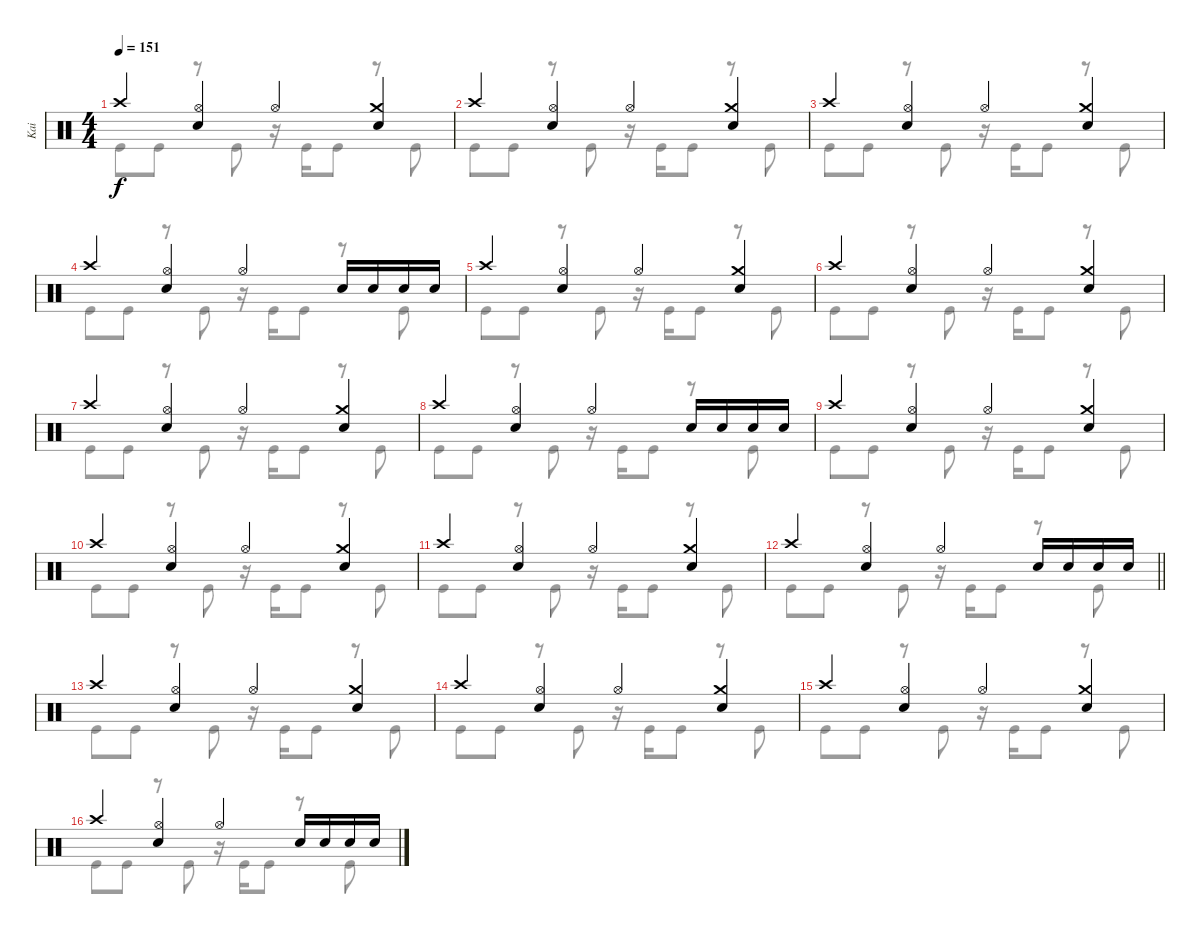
\track ("Kai" "Kai") {instrument percussion}
\staff {score}
\articulation defaults
\voice
\ts (4 4)
\tempo 151
\clef neutral
\ks c "Crash high (hit)".4{dy f}
("Hi-Hat (open)" "Electric Snare (hit)").4 "Hi-Hat (open)".4 ("Crash medium (hit)" "Electric Snare (hit)").4 |
"Crash high (hit)".4 ("Hi-Hat (open)" "Electric Snare (hit)").4 "Hi-Hat (open)".4 ("Crash medium (hit)" "Electric Snare (hit)").4 |
"Crash high (hit)".4 ("Hi-Hat (open)" "Electric Snare (hit)").4 "Hi-Hat (open)".4 ("Crash medium (hit)" "Electric Snare (hit)").4 |
"Crash high (hit)".4 ("Hi-Hat (open)" "Electric Snare (hit)").4 "Hi-Hat (open)".4 "Electric Snare (hit)".16 "Electric Snare (hit)".16 "Electric Snare (hit)".16 "Electric Snare (hit)".16 |
"Crash high (hit)".4 ("Hi-Hat (open)" "Electric Snare (hit)").4 "Hi-Hat (open)".4 ("Crash medium (hit)" "Electric Snare (hit)").4 |
"Crash high (hit)".4 ("Hi-Hat (open)" "Electric Snare (hit)").4 "Hi-Hat (open)".4 ("Crash medium (hit)" "Electric Snare (hit)").4 |
"Crash high (hit)".4 ("Hi-Hat (open)" "Electric Snare (hit)").4 "Hi-Hat (open)".4 ("Crash medium (hit)" "Electric Snare (hit)").4 |
"Crash high (hit)".4 ("Hi-Hat (open)" "Electric Snare (hit)").4 "Hi-Hat (open)".4 "Electric Snare (hit)".16 "Electric Snare (hit)".16 "Electric Snare (hit)".16 "Electric Snare (hit)".16 |
"Crash high (hit)".4 ("Hi-Hat (open)" "Electric Snare (hit)").4 "Hi-Hat (open)".4 ("Crash medium (hit)" "Electric Snare (hit)").4 |
"Crash high (hit)".4 ("Hi-Hat (open)" "Electric Snare (hit)").4 "Hi-Hat (open)".4 ("Crash medium (hit)" "Electric Snare (hit)").4 |
"Crash high (hit)".4 ("Hi-Hat (open)" "Electric Snare (hit)").4 "Hi-Hat (open)".4 ("Crash medium (hit)" "Electric Snare (hit)").4 |
\barLineRight lightlight "Crash high (hit)".4
("Hi-Hat (open)" "Electric Snare (hit)").4 "Hi-Hat (open)".4 "Electric Snare (hit)".16 "Electric Snare (hit)".16 "Electric Snare (hit)".16 "Electric Snare (hit)".16 |
\section ("" "")
"Crash high (hit)".4 ("Hi-Hat (open)" "Electric Snare (hit)").4 "Hi-Hat (open)".4 ("Crash medium (hit)" "Electric Snare (hit)").4 |
"Crash high (hit)".4 ("Hi-Hat (open)" "Electric Snare (hit)").4 "Hi-Hat (open)".4 ("Crash medium (hit)" "Electric Snare (hit)").4 |
"Crash high (hit)".4 ("Hi-Hat (open)" "Electric Snare (hit)").4 "Hi-Hat (open)".4 ("Crash medium (hit)" "Electric Snare (hit)").4 |
"Crash high (hit)".4 ("Hi-Hat (open)" "Electric Snare (hit)").4 "Hi-Hat (open)".4 "Electric Snare (hit)".16 "Electric Snare (hit)".16 "Electric Snare (hit)".16 "Electric Snare (hit)".16
\voice
\clef neutral
\ottava regular
\simile none
\ks c "Kick (hit)".8{dy f} "Kick (hit)".8
r.8 "Kick (hit)".8 r.16 "Kick (hit)".16 "Kick (hit)".8 r.8 "Kick (hit)".8 |
"Kick (hit)".8 "Kick (hit)".8 r.8 "Kick (hit)".8 r.16 "Kick (hit)".16 "Kick (hit)".8 r.8 "Kick (hit)".8 |
"Kick (hit)".8 "Kick (hit)".8 r.8 "Kick (hit)".8 r.16 "Kick (hit)".16 "Kick (hit)".8 r.8 "Kick (hit)".8 |
"Kick (hit)".8 "Kick (hit)".8 r.8 "Kick (hit)".8 r.16 "Kick (hit)".16 "Kick (hit)".8 r.8 "Kick (hit)".8 |
"Kick (hit)".8 "Kick (hit)".8 r.8 "Kick (hit)".8 r.16 "Kick (hit)".16 "Kick (hit)".8 r.8 "Kick (hit)".8 |
"Kick (hit)".8 "Kick (hit)".8 r.8 "Kick (hit)".8 r.16 "Kick (hit)".16 "Kick (hit)".8 r.8 "Kick (hit)".8 |
"Kick (hit)".8 "Kick (hit)".8 r.8 "Kick (hit)".8 r.16 "Kick (hit)".16 "Kick (hit)".8 r.8 "Kick (hit)".8 |
"Kick (hit)".8 "Kick (hit)".8 r.8 "Kick (hit)".8 r.16 "Kick (hit)".16 "Kick (hit)".8 r.8 "Kick (hit)".8 |
"Kick (hit)".8 "Kick (hit)".8 r.8 "Kick (hit)".8 r.16 "Kick (hit)".16 "Kick (hit)".8 r.8 "Kick (hit)".8 |
"Kick (hit)".8 "Kick (hit)".8 r.8 "Kick (hit)".8 r.16 "Kick (hit)".16 "Kick (hit)".8 r.8 "Kick (hit)".8 |
"Kick (hit)".8 "Kick (hit)".8 r.8 "Kick (hit)".8 r.16 "Kick (hit)".16 "Kick (hit)".8 r.8 "Kick (hit)".8 |
\barLineRight lightlight "Kick (hit)".8 "Kick (hit)".8
r.8 "Kick (hit)".8 r.16 "Kick (hit)".16 "Kick (hit)".8 r.8 "Kick (hit)".8 |
"Kick (hit)".8 "Kick (hit)".8 r.8 "Kick (hit)".8 r.16 "Kick (hit)".16 "Kick (hit)".8 r.8 "Kick (hit)".8 |
"Kick (hit)".8 "Kick (hit)".8 r.8 "Kick (hit)".8 r.16 "Kick (hit)".16 "Kick (hit)".8 r.8 "Kick (hit)".8 |
"Kick (hit)".8 "Kick (hit)".8 r.8 "Kick (hit)".8 r.16 "Kick (hit)".16 "Kick (hit)".8 r.8 "Kick (hit)".8 |
"Kick (hit)".8 "Kick (hit)".8 r.8 "Kick (hit)".8 r.16 "Kick (hit)".16 "Kick (hit)".8 r.8 "Kick (hit)".8
